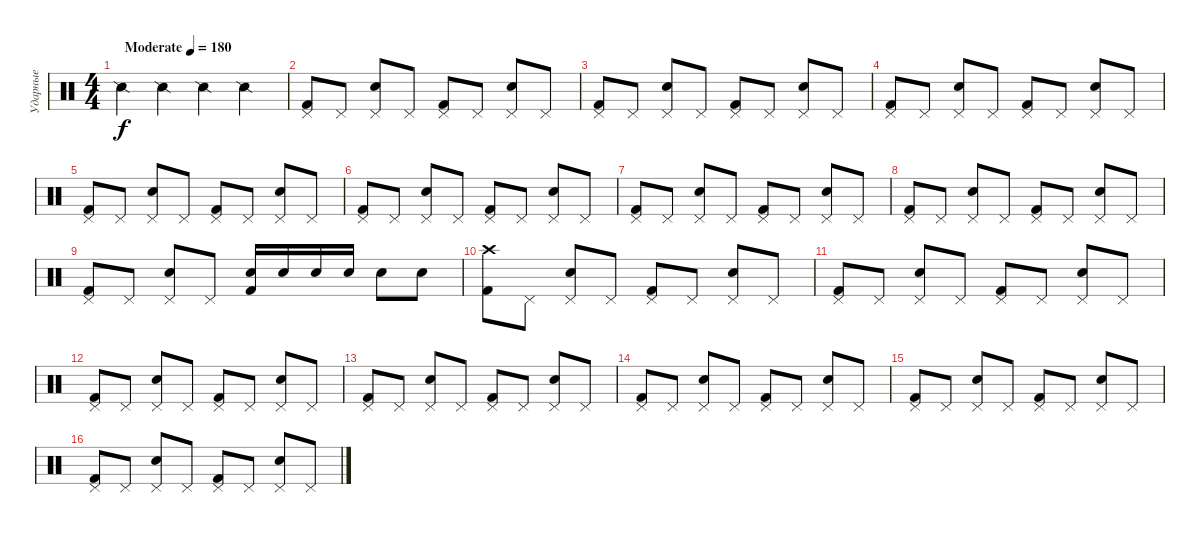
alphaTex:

\track ("Ударные" "Ударные") {instrument percussion}
\staff {score}
\articulation defaults
\ts (4 4)
\tempo (180 "Moderate")
\clef neutral
\ks c "Snare (side stick) 2".4{dy f} "Snare (side stick) 2".4 "Snare (side stick) 2".4 "Snare (side stick) 2".4
|
("Pedal Hi-Hat (hit)" "Kick (hit) 2").8 "Pedal Hi-Hat (hit)".8 ("Pedal Hi-Hat (hit)" "Electric Snare (hit)").8 "Pedal Hi-Hat (hit)".8 ("Pedal Hi-Hat (hit)" "Kick (hit) 2").8 "Pedal Hi-Hat (hit)".8 ("Pedal Hi-Hat (hit)" "Electric Snare (hit)").8 "Pedal Hi-Hat (hit)".8 |
("Pedal Hi-Hat (hit)" "Kick (hit) 2").8 "Pedal Hi-Hat (hit)".8 ("Pedal Hi-Hat (hit)" "Electric Snare (hit)").8 "Pedal Hi-Hat (hit)".8 ("Pedal Hi-Hat (hit)" "Kick (hit) 2").8 "Pedal Hi-Hat (hit)".8 ("Pedal Hi-Hat (hit)" "Electric Snare (hit)").8 "Pedal Hi-Hat (hit)".8 |
("Pedal Hi-Hat (hit)" "Kick (hit) 2").8 "Pedal Hi-Hat (hit)".8 ("Pedal Hi-Hat (hit)" "Electric Snare (hit)").8 "Pedal Hi-Hat (hit)".8 ("Pedal Hi-Hat (hit)" "Kick (hit) 2").8 "Pedal Hi-Hat (hit)".8 ("Pedal Hi-Hat (hit)" "Electric Snare (hit)").8 "Pedal Hi-Hat (hit)".8 |
("Pedal Hi-Hat (hit)" "Kick (hit) 2").8 "Pedal Hi-Hat (hit)".8 ("Pedal Hi-Hat (hit)" "Electric Snare (hit)").8 "Pedal Hi-Hat (hit)".8 ("Pedal Hi-Hat (hit)" "Kick (hit) 2").8 "Pedal Hi-Hat (hit)".8 ("Pedal Hi-Hat (hit)" "Electric Snare (hit)").8 "Pedal Hi-Hat (hit)".8 |
("Pedal Hi-Hat (hit)" "Kick (hit) 2").8 "Pedal Hi-Hat (hit)".8 ("Pedal Hi-Hat (hit)" "Electric Snare (hit)").8 "Pedal Hi-Hat (hit)".8 ("Pedal Hi-Hat (hit)" "Kick (hit) 2").8 "Pedal Hi-Hat (hit)".8 ("Pedal Hi-Hat (hit)" "Electric Snare (hit)").8 "Pedal Hi-Hat (hit)".8 |
("Pedal Hi-Hat (hit)" "Kick (hit) 2").8 "Pedal Hi-Hat (hit)".8 ("Pedal Hi-Hat (hit)" "Electric Snare (hit)").8 "Pedal Hi-Hat (hit)".8 ("Pedal Hi-Hat (hit)" "Kick (hit) 2").8 "Pedal Hi-Hat (hit)".8 ("Pedal Hi-Hat (hit)" "Electric Snare (hit)").8 "Pedal Hi-Hat (hit)".8 |
("Pedal Hi-Hat (hit)" "Kick (hit) 2").8 "Pedal Hi-Hat (hit)".8 ("Pedal Hi-Hat (hit)" "Electric Snare (hit)").8 "Pedal Hi-Hat (hit)".8 ("Pedal Hi-Hat (hit)" "Kick (hit) 2").8 "Pedal Hi-Hat (hit)".8 ("Pedal Hi-Hat (hit)" "Electric Snare (hit)").8 "Pedal Hi-Hat (hit)".8 |
("Pedal Hi-Hat (hit)" "Kick (hit) 2").8 "Pedal Hi-Hat (hit)".8 ("Pedal Hi-Hat (hit)" "Electric Snare (hit)").8 "Pedal Hi-Hat (hit)".8 ("Electric Snare (hit)" "Kick (hit) 2").16 "Electric Snare (hit)".16 "Electric Snare (hit)".16 "Electric Snare (hit)".16 "Electric Snare (hit)".8 "Electric Snare (hit)".8 |
("Crash high (hit)" "Kick (hit) 2").8 "Pedal Hi-Hat (hit)".8 ("Pedal Hi-Hat (hit)" "Electric Snare (hit)").8 "Pedal Hi-Hat (hit)".8 ("Pedal Hi-Hat (hit)" "Kick (hit) 2").8 "Pedal Hi-Hat (hit)".8 ("Pedal Hi-Hat (hit)" "Electric Snare (hit)").8 "Pedal Hi-Hat (hit)".8 |
("Pedal Hi-Hat (hit)" "Kick (hit) 2").8 "Pedal Hi-Hat (hit)".8 ("Pedal Hi-Hat (hit)" "Electric Snare (hit)").8 "Pedal Hi-Hat (hit)".8 ("Pedal Hi-Hat (hit)" "Kick (hit) 2").8 "Pedal Hi-Hat (hit)".8 ("Pedal Hi-Hat (hit)" "Electric Snare (hit)").8 "Pedal Hi-Hat (hit)".8 |
("Pedal Hi-Hat (hit)" "Kick (hit) 2").8 "Pedal Hi-Hat (hit)".8 ("Pedal Hi-Hat (hit)" "Electric Snare (hit)").8 "Pedal Hi-Hat (hit)".8 ("Pedal Hi-Hat (hit)" "Kick (hit) 2").8 "Pedal Hi-Hat (hit)".8 ("Pedal Hi-Hat (hit)" "Electric Snare (hit)").8 "Pedal Hi-Hat (hit)".8 |
("Pedal Hi-Hat (hit)" "Kick (hit) 2").8 "Pedal Hi-Hat (hit)".8 ("Pedal Hi-Hat (hit)" "Electric Snare (hit)").8 "Pedal Hi-Hat (hit)".8 ("Pedal Hi-Hat (hit)" "Kick (hit) 2").8 "Pedal Hi-Hat (hit)".8 ("Pedal Hi-Hat (hit)" "Electric Snare (hit)").8 "Pedal Hi-Hat (hit)".8 |
("Pedal Hi-Hat (hit)" "Kick (hit) 2").8 "Pedal Hi-Hat (hit)".8 ("Pedal Hi-Hat (hit)" "Electric Snare (hit)").8 "Pedal Hi-Hat (hit)".8 ("Pedal Hi-Hat (hit)" "Kick (hit) 2").8 "Pedal Hi-Hat (hit)".8 ("Pedal Hi-Hat (hit)" "Electric Snare (hit)").8 "Pedal Hi-Hat (hit)".8 |
("Pedal Hi-Hat (hit)" "Kick (hit) 2").8 "Pedal Hi-Hat (hit)".8 ("Pedal Hi-Hat (hit)" "Electric Snare (hit)").8 "Pedal Hi-Hat (hit)".8 ("Pedal Hi-Hat (hit)" "Kick (hit) 2").8 "Pedal Hi-Hat (hit)".8 ("Pedal Hi-Hat (hit)" "Electric Snare (hit)").8 "Pedal Hi-Hat (hit)".8 |
("Pedal Hi-Hat (hit)" "Kick (hit) 2").8 "Pedal Hi-Hat (hit)".8 ("Pedal Hi-Hat (hit)" "Electric Snare (hit)").8 "Pedal Hi-Hat (hit)".8 ("Pedal Hi-Hat (hit)" "Kick (hit) 2").8 "Pedal Hi-Hat (hit)".8 ("Pedal Hi-Hat (hit)" "Electric Snare (hit)").8 "Pedal Hi-Hat (hit)".8
